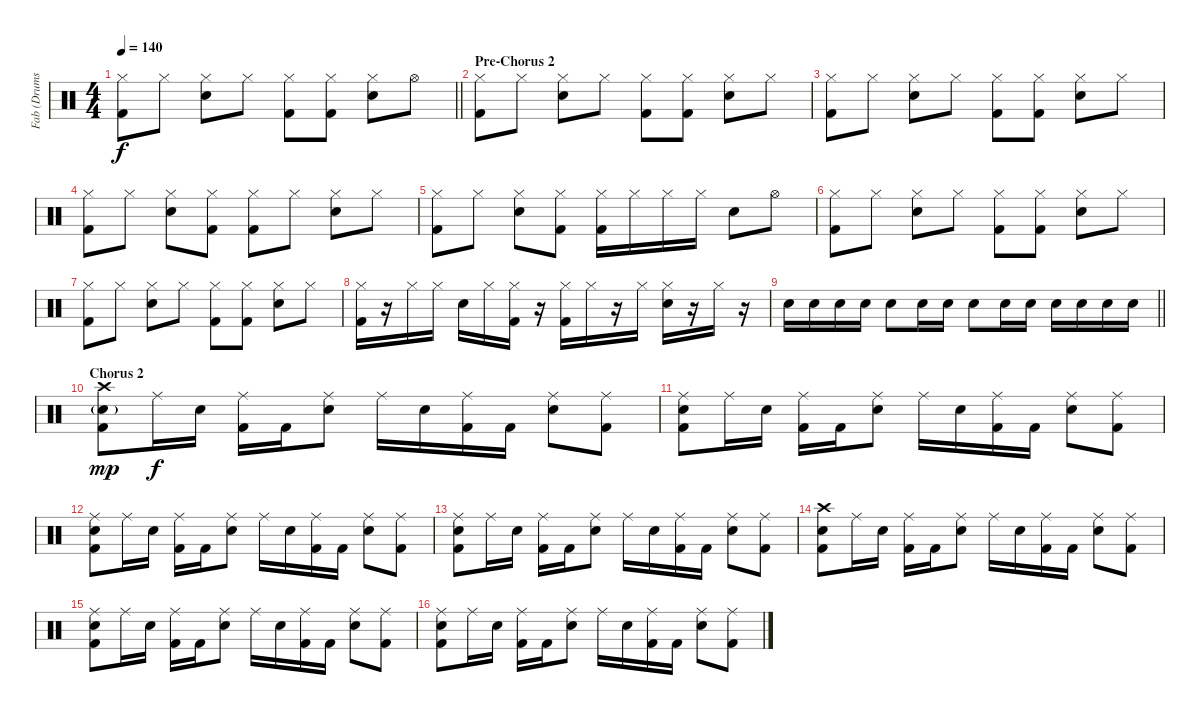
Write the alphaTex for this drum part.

\track ("Fab (Drums)" "Fab (Drums") {instrument percussion}
\staff {score}
\articulation defaults
\ts (4 4)
\tempo 140
\clef neutral
\barLineRight lightlight
\ks c
("Hi-Hat (closed)" "Kick (hit) 2").8{dy f} "Hi-Hat (closed)".8 ("Hi-Hat (closed)" "Snare (hit) 2").8 "Hi-Hat (closed)".8 ("Hi-Hat (closed)" "Kick (hit) 2").8 ("Hi-Hat (closed)" "Kick (hit) 2").8 ("Hi-Hat (closed)" "Snare (hit) 2").8 "Hi-Hat (open)".8 |
\section ("" "Pre-Chorus 2")
("Hi-Hat (closed)" "Kick (hit) 2").8 "Hi-Hat (closed)".8 ("Hi-Hat (closed)" "Snare (hit) 2").8 "Hi-Hat (closed)".8 ("Hi-Hat (closed)" "Kick (hit) 2").8 ("Hi-Hat (closed)" "Kick (hit) 2").8 ("Hi-Hat (closed)" "Snare (hit) 2").8 "Hi-Hat (closed)".8 |
("Hi-Hat (closed)" "Kick (hit) 2").8 "Hi-Hat (closed)".8 ("Hi-Hat (closed)" "Snare (hit) 2").8 "Hi-Hat (closed)".8 ("Hi-Hat (closed)" "Kick (hit) 2").8 ("Hi-Hat (closed)" "Kick (hit) 2").8 ("Hi-Hat (closed)" "Snare (hit) 2").8 "Hi-Hat (closed)".8 |
("Hi-Hat (closed)" "Kick (hit) 2").8 "Hi-Hat (closed)".8 ("Hi-Hat (closed)" "Snare (hit) 2").8 ("Hi-Hat (closed)" "Kick (hit) 2").8 ("Hi-Hat (closed)" "Kick (hit) 2").8 "Hi-Hat (closed)".8 ("Hi-Hat (closed)" "Snare (hit) 2").8 "Hi-Hat (closed)".8 |
("Hi-Hat (closed)" "Kick (hit) 2").8 "Hi-Hat (closed)".8 ("Hi-Hat (closed)" "Snare (hit) 2").8 ("Hi-Hat (closed)" "Kick (hit) 2").8 ("Hi-Hat (closed)" "Kick (hit) 2").16 "Hi-Hat (closed)".16 "Hi-Hat (closed)".16 "Hi-Hat (closed)".16 "Snare (hit) 2".8 "Hi-Hat (open)".8 |
("Hi-Hat (closed)" "Kick (hit) 2").8 "Hi-Hat (closed)".8 ("Hi-Hat (closed)" "Snare (hit) 2").8 "Hi-Hat (closed)".8 ("Hi-Hat (closed)" "Kick (hit) 2").8 ("Hi-Hat (closed)" "Kick (hit) 2").8 ("Hi-Hat (closed)" "Snare (hit) 2").8 "Hi-Hat (closed)".8 |
("Hi-Hat (closed)" "Kick (hit) 2").8 "Hi-Hat (closed)".8 ("Hi-Hat (closed)" "Snare (hit) 2").8 "Hi-Hat (closed)".8 ("Hi-Hat (closed)" "Kick (hit) 2").8 ("Hi-Hat (closed)" "Kick (hit) 2").8 ("Hi-Hat (closed)" "Snare (hit) 2").8 "Hi-Hat (closed)".8 |
("Hi-Hat (closed)" "Kick (hit) 2").16 r.16 "Hi-Hat (closed)".16 "Hi-Hat (closed)".16 "Snare (hit) 2".16 "Hi-Hat (closed)".16 ("Hi-Hat (closed)" "Kick (hit) 2").16 r.16 ("Hi-Hat (closed)" "Kick (hit) 2").16 "Hi-Hat (closed)".16 r.16 "Hi-Hat (closed)".16 ("Hi-Hat (closed)" "Snare (hit) 2").16 r.16 "Hi-Hat (closed)".16 r.16 |
\barLineRight lightlight "Snare (hit) 2".16 "Snare (hit) 2".16 "Snare (hit) 2".16 "Snare (hit) 2".16 "Snare (hit) 2".8 "Snare (hit) 2".16 "Snare (hit) 2".16 "Snare (hit) 2".8 "Snare (hit) 2".16 "Snare (hit) 2".16 "Snare (hit) 2".16 "Snare (hit) 2".16 "Snare (hit) 2".16 "Snare (hit) 2".16
|
\section ("" "Chorus 2")
("Crash high (hit)" "Snare (hit) 2"{g} "Kick (hit) 2").8{dy mp} "Ride (middle)".16{dy f} "Snare (hit) 2".16 ("Ride (middle)" "Kick (hit) 2").16 "Kick (hit) 2".16 ("Ride (middle)" "Snare (hit) 2").8 "Ride (middle)".16 "Snare (hit) 2".16 ("Ride (middle)" "Kick (hit) 2").16 "Kick (hit) 2".16 ("Ride (middle)" "Snare (hit) 2").8 ("Ride (middle)" "Kick (hit) 2").8 |
("Ride (middle)" "Snare (hit) 2" "Kick (hit) 2").8 "Ride (middle)".16 "Snare (hit) 2".16 ("Ride (middle)" "Kick (hit) 2").16 "Kick (hit) 2".16 ("Ride (middle)" "Snare (hit) 2").8 "Ride (middle)".16 "Snare (hit) 2".16 ("Ride (middle)" "Kick (hit) 2").16 "Kick (hit) 2".16 ("Ride (middle)" "Snare (hit) 2").8 ("Ride (middle)" "Kick (hit) 2").8 |
("Ride (middle)" "Snare (hit) 2" "Kick (hit) 2").8 "Ride (middle)".16 "Snare (hit) 2".16 ("Ride (middle)" "Kick (hit) 2").16 "Kick (hit) 2".16 ("Ride (middle)" "Snare (hit) 2").8 "Ride (middle)".16 "Snare (hit) 2".16 ("Ride (middle)" "Kick (hit) 2").16 "Kick (hit) 2".16 ("Ride (middle)" "Snare (hit) 2").8 ("Ride (middle)" "Kick (hit) 2").8 |
("Ride (middle)" "Snare (hit) 2" "Kick (hit) 2").8 "Ride (middle)".16 "Snare (hit) 2".16 ("Ride (middle)" "Kick (hit) 2").16 "Kick (hit) 2".16 ("Ride (middle)" "Snare (hit) 2").8 "Ride (middle)".16 "Snare (hit) 2".16 ("Ride (middle)" "Kick (hit) 2").16 "Kick (hit) 2".16 ("Ride (middle)" "Snare (hit) 2").8 ("Ride (middle)" "Kick (hit) 2").8 |
("Crash high (hit)" "Snare (hit) 2" "Kick (hit) 2").8 "Ride (middle)".16 "Snare (hit) 2".16 ("Ride (middle)" "Kick (hit) 2").16 "Kick (hit) 2".16 ("Ride (middle)" "Snare (hit) 2").8 "Ride (middle)".16 "Snare (hit) 2".16 ("Ride (middle)" "Kick (hit) 2").16 "Kick (hit) 2".16 ("Ride (middle)" "Snare (hit) 2").8 ("Ride (middle)" "Kick (hit) 2").8 |
("Ride (middle)" "Snare (hit) 2" "Kick (hit) 2").8 "Ride (middle)".16 "Snare (hit) 2".16 ("Ride (middle)" "Kick (hit) 2").16 "Kick (hit) 2".16 ("Ride (middle)" "Snare (hit) 2").8 "Ride (middle)".16 "Snare (hit) 2".16 ("Ride (middle)" "Kick (hit) 2").16 "Kick (hit) 2".16 ("Ride (middle)" "Snare (hit) 2").8 ("Ride (middle)" "Kick (hit) 2").8 |
("Ride (middle)" "Snare (hit) 2" "Kick (hit) 2").8 "Ride (middle)".16 "Snare (hit) 2".16 ("Ride (middle)" "Kick (hit) 2").16 "Kick (hit) 2".16 ("Ride (middle)" "Snare (hit) 2").8 "Ride (middle)".16 "Snare (hit) 2".16 ("Ride (middle)" "Kick (hit) 2").16 "Kick (hit) 2".16 ("Ride (middle)" "Snare (hit) 2").8 ("Ride (middle)" "Kick (hit) 2").8
